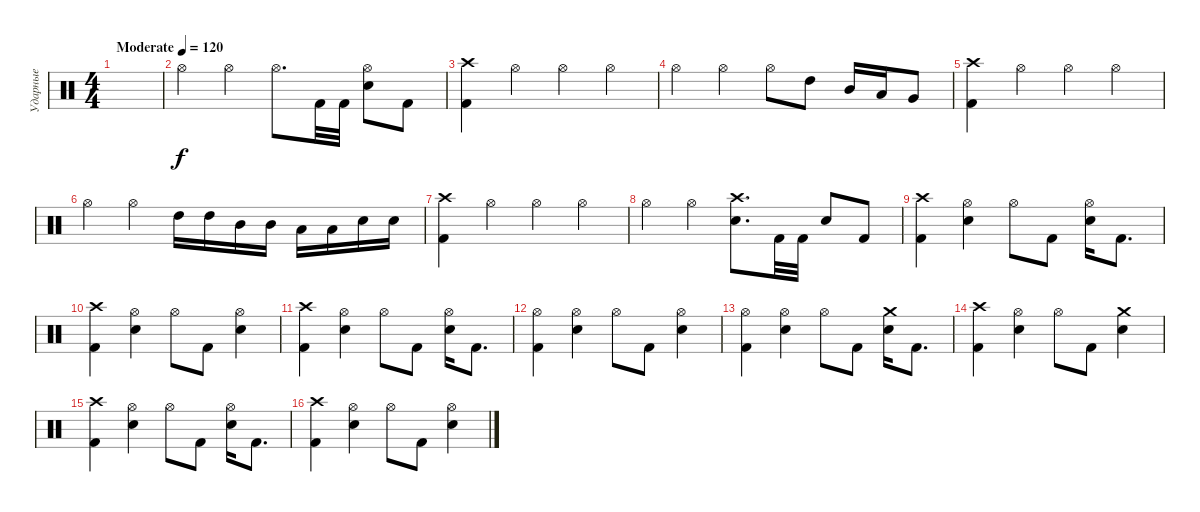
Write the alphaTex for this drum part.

\track ("Ударные" "Ударные") {instrument percussion}
\staff {score}
\articulation defaults
\ts (4 4)
\tempo (120 "Moderate")
\clef neutral
\ks c
|
"Hi-Hat (open)".4 "Hi-Hat (open)".4 "Hi-Hat (open)".8{d} "Kick (hit) 2".32 "Kick (hit) 2".32 ("Hi-Hat (open)" "Electric Snare (hit)").8 "Kick (hit) 2".8 |
("Crash high (hit)" "Kick (hit) 2").4 "Hi-Hat (open)".4 "Hi-Hat (open)".4 "Hi-Hat (open)".4 |
"Hi-Hat (open)".4 "Hi-Hat (open)".4 "Hi-Hat (open)".8 "High Tom (hit)".8 "Mid Tom (hit)".16 "Low Tom (hit)".16 "Very Low Tom (hit)".8 |
("Crash high (hit)" "Kick (hit) 2").4 "Hi-Hat (open)".4 "Hi-Hat (open)".4 "Hi-Hat (open)".4 |
"Hi-Hat (open)".4 "Hi-Hat (open)".4 "High Tom (hit)".16 "High Tom (hit)".16 "Mid Tom (hit)".16 "Mid Tom (hit)".16 "Low Tom (hit)".16 "Low Tom (hit)".16 "Electric Snare (hit)".16 "Electric Snare (hit)".16 |
("Crash high (hit)" "Kick (hit) 2").4 "Hi-Hat (open)".4 "Hi-Hat (open)".4 "Hi-Hat (open)".4 |
"Hi-Hat (open)".4 "Hi-Hat (open)".4 ("Crash high (hit)" "Electric Snare (hit)").8{d} "Kick (hit) 2".32 "Kick (hit) 2".32 "Electric Snare (hit)".8 "Kick (hit) 2".8 |
("Crash high (hit)" "Kick (hit) 2").4 ("Hi-Hat (open)" "Electric Snare (hit)").4 "Hi-Hat (open)".8 "Kick (hit) 2".8 ("Hi-Hat (open)" "Electric Snare (hit)").16 "Kick (hit) 2".8{d} |
("Crash high (hit)" "Kick (hit) 2").4 ("Hi-Hat (open)" "Electric Snare (hit)").4 "Hi-Hat (open)".8 "Kick (hit) 2".8 ("Hi-Hat (open)" "Electric Snare (hit)").4 |
("Crash high (hit)" "Kick (hit) 2").4 ("Hi-Hat (open)" "Electric Snare (hit)").4 "Hi-Hat (open)".8 "Kick (hit) 2".8 ("Hi-Hat (open)" "Electric Snare (hit)").16 "Kick (hit) 2".8{d} |
("Hi-Hat (open)" "Kick (hit) 2").4 ("Hi-Hat (open)" "Electric Snare (hit)").4 "Hi-Hat (open)".8 "Kick (hit) 2".8 ("Hi-Hat (open)" "Electric Snare (hit)").4 |
("Hi-Hat (open)" "Kick (hit) 2").4 ("Hi-Hat (open)" "Electric Snare (hit)").4 "Hi-Hat (open)".8 "Kick (hit) 2".8 ("Crash medium (hit)" "Electric Snare (hit)").16 "Kick (hit) 2".8{d} |
("Crash high (hit)" "Kick (hit) 2").4 ("Hi-Hat (open)" "Electric Snare (hit)").4 "Hi-Hat (open)".8 "Kick (hit) 2".8 ("Crash medium (hit)" "Electric Snare (hit)").4 |
("Crash high (hit)" "Kick (hit) 2").4 ("Hi-Hat (open)" "Electric Snare (hit)").4 "Hi-Hat (open)".8 "Kick (hit) 2".8 ("Hi-Hat (open)" "Electric Snare (hit)").16 "Kick (hit) 2".8{d} |
("Crash high (hit)" "Kick (hit) 2").4 ("Hi-Hat (open)" "Electric Snare (hit)").4 "Hi-Hat (open)".8 "Kick (hit) 2".8 ("Hi-Hat (open)" "Electric Snare (hit)").4
